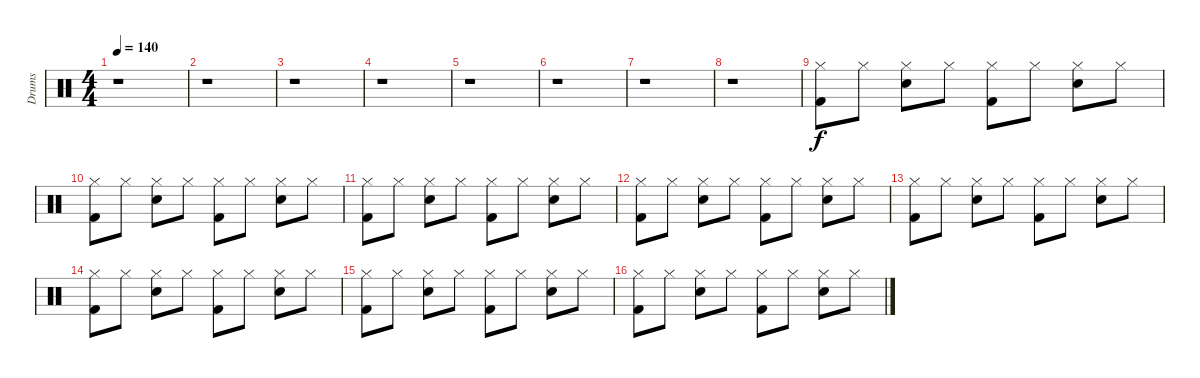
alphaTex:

\track ("Drums" "Drums") {instrument percussion}
\staff {score}
\articulation defaults
\ts (4 4)
\tempo 140
\clef neutral
\ks c
r.1{dy f} |
r.1 |
r.1 |
r.1 |
r.1 |
r.1 |
r.1 |
r.1 |
("Hi-Hat (closed)" "Kick (hit) 2").8 "Hi-Hat (closed)".8 ("Hi-Hat (closed)" "Electric Snare (hit)").8 "Hi-Hat (closed)".8 ("Hi-Hat (closed)" "Kick (hit) 2").8 "Hi-Hat (closed)".8 ("Hi-Hat (closed)" "Electric Snare (hit)").8 "Hi-Hat (closed)".8 |
("Hi-Hat (closed)" "Kick (hit) 2").8 "Hi-Hat (closed)".8 ("Hi-Hat (closed)" "Electric Snare (hit)").8 "Hi-Hat (closed)".8 ("Hi-Hat (closed)" "Kick (hit) 2").8 "Hi-Hat (closed)".8 ("Hi-Hat (closed)" "Electric Snare (hit)").8 "Hi-Hat (closed)".8 |
("Hi-Hat (closed)" "Kick (hit) 2").8 "Hi-Hat (closed)".8 ("Hi-Hat (closed)" "Electric Snare (hit)").8 "Hi-Hat (closed)".8 ("Hi-Hat (closed)" "Kick (hit) 2").8 "Hi-Hat (closed)".8 ("Hi-Hat (closed)" "Electric Snare (hit)").8 "Hi-Hat (closed)".8 |
("Hi-Hat (closed)" "Kick (hit) 2").8 "Hi-Hat (closed)".8 ("Hi-Hat (closed)" "Electric Snare (hit)").8 "Hi-Hat (closed)".8 ("Hi-Hat (closed)" "Kick (hit) 2").8 "Hi-Hat (closed)".8 ("Hi-Hat (closed)" "Electric Snare (hit)").8 "Hi-Hat (closed)".8 |
("Hi-Hat (closed)" "Kick (hit) 2").8 "Hi-Hat (closed)".8 ("Hi-Hat (closed)" "Electric Snare (hit)").8 "Hi-Hat (closed)".8 ("Hi-Hat (closed)" "Kick (hit) 2").8 "Hi-Hat (closed)".8 ("Hi-Hat (closed)" "Electric Snare (hit)").8 "Hi-Hat (closed)".8 |
("Hi-Hat (closed)" "Kick (hit) 2").8 "Hi-Hat (closed)".8 ("Hi-Hat (closed)" "Electric Snare (hit)").8 "Hi-Hat (closed)".8 ("Hi-Hat (closed)" "Kick (hit) 2").8 "Hi-Hat (closed)".8 ("Hi-Hat (closed)" "Electric Snare (hit)").8 "Hi-Hat (closed)".8 |
("Hi-Hat (closed)" "Kick (hit) 2").8 "Hi-Hat (closed)".8 ("Hi-Hat (closed)" "Electric Snare (hit)").8 "Hi-Hat (closed)".8 ("Hi-Hat (closed)" "Kick (hit) 2").8 "Hi-Hat (closed)".8 ("Hi-Hat (closed)" "Electric Snare (hit)").8 "Hi-Hat (closed)".8 |
("Hi-Hat (closed)" "Kick (hit) 2").8 "Hi-Hat (closed)".8 ("Hi-Hat (closed)" "Electric Snare (hit)").8 "Hi-Hat (closed)".8 ("Hi-Hat (closed)" "Kick (hit) 2").8 "Hi-Hat (closed)".8 ("Hi-Hat (closed)" "Electric Snare (hit)").8 "Hi-Hat (closed)".8
